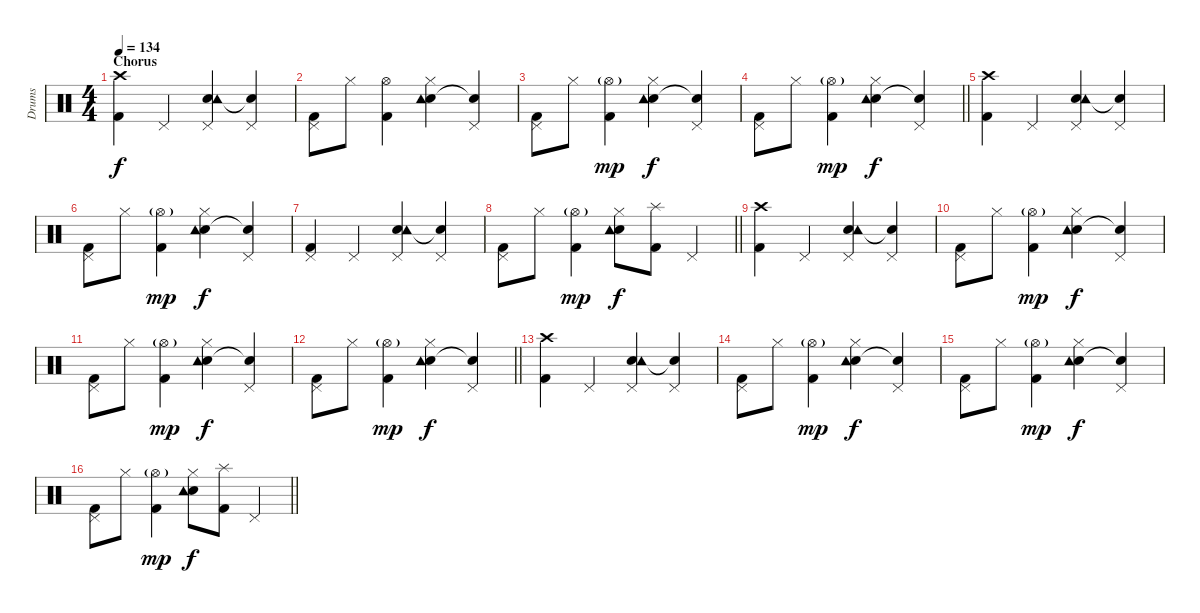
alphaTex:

\track ("Drums" "Drums") {instrument percussion}
\staff {score}
\articulation defaults
\ts (4 4)
\section ("" "Chorus")
\tempo 134
\clef neutral
\ks c
("Crash high (hit)" "Kick (hit) 2").4{dy f} "Pedal Hi-Hat (hit)".4 ("Pedal Hi-Hat (hit)" "Electric Snare (hit)" "Tambourine (hit)").4 ("Pedal Hi-Hat (hit)" "Snare (hit)"{t}).4 |
("Pedal Hi-Hat (hit)" "Kick (hit) 2").8 "Hi-Hat (closed)".8 ("Hi-Hat (open)" "Kick (hit) 2").4 ("Hi-Hat (closed)" "Electric Snare (hit)" "Tambourine (hit)").4 ("Pedal Hi-Hat (hit)" "Snare (hit)"{t}).4 |
("Pedal Hi-Hat (hit)" "Kick (hit) 2").8 "Hi-Hat (closed)".8 ("Hi-Hat (open)"{g} "Kick (hit) 2").4{dy mp} ("Hi-Hat (closed)" "Electric Snare (hit)" "Tambourine (hit)").4{dy f} ("Pedal Hi-Hat (hit)" "Snare (hit)"{t}).4 |
\barLineRight lightlight
("Pedal Hi-Hat (hit)" "Kick (hit) 2").8 "Hi-Hat (closed)".8 ("Hi-Hat (open)"{g} "Kick (hit) 2").4{dy mp} ("Hi-Hat (closed)" "Electric Snare (hit)" "Tambourine (hit)").4{dy f} ("Pedal Hi-Hat (hit)" "Snare (hit)"{t}).4 |
("Crash high (hit)" "Kick (hit) 2").4 "Pedal Hi-Hat (hit)".4 ("Pedal Hi-Hat (hit)" "Electric Snare (hit)" "Tambourine (hit)").4 ("Pedal Hi-Hat (hit)" "Snare (hit)"{t}).4 |
("Pedal Hi-Hat (hit)" "Kick (hit) 2").8 "Hi-Hat (closed)".8 ("Hi-Hat (open)"{g} "Kick (hit) 2").4{dy mp} ("Hi-Hat (closed)" "Electric Snare (hit)" "Tambourine (hit)").4{dy f} ("Pedal Hi-Hat (hit)" "Snare (hit)"{t}).4 |
("Pedal Hi-Hat (hit)" "Kick (hit) 2").4 "Pedal Hi-Hat (hit)".4 ("Pedal Hi-Hat (hit)" "Electric Snare (hit)" "Tambourine (hit)").4 ("Pedal Hi-Hat (hit)" "Snare (hit)"{t}).4 |
\barLineRight lightlight
("Pedal Hi-Hat (hit)" "Kick (hit) 2").8 "Hi-Hat (closed)".8 ("Hi-Hat (open)"{g} "Kick (hit) 2").4{dy mp} ("Hi-Hat (closed)" "Electric Snare (hit)" "Tambourine (hit)").8{dy f} ("Splash (hit)" "Kick (hit) 2").8 "Pedal Hi-Hat (hit)".4 |
("Crash high (hit)" "Kick (hit) 2").4 "Pedal Hi-Hat (hit)".4 ("Pedal Hi-Hat (hit)" "Electric Snare (hit)" "Tambourine (hit)").4 ("Pedal Hi-Hat (hit)" "Snare (hit)"{t}).4 |
("Pedal Hi-Hat (hit)" "Kick (hit) 2").8 "Hi-Hat (closed)".8 ("Hi-Hat (open)"{g} "Kick (hit) 2").4{dy mp} ("Hi-Hat (closed)" "Electric Snare (hit)" "Tambourine (hit)").4{dy f} ("Pedal Hi-Hat (hit)" "Snare (hit)"{t}).4 |
("Pedal Hi-Hat (hit)" "Kick (hit) 2").8 "Hi-Hat (closed)".8 ("Hi-Hat (open)"{g} "Kick (hit) 2").4{dy mp} ("Hi-Hat (closed)" "Electric Snare (hit)" "Tambourine (hit)").4{dy f} ("Pedal Hi-Hat (hit)" "Snare (hit)"{t}).4 |
\barLineRight lightlight
("Pedal Hi-Hat (hit)" "Kick (hit) 2").8 "Hi-Hat (closed)".8 ("Hi-Hat (open)"{g} "Kick (hit) 2").4{dy mp} ("Hi-Hat (closed)" "Electric Snare (hit)" "Tambourine (hit)").4{dy f} ("Pedal Hi-Hat (hit)" "Snare (hit)"{t}).4 |
("Crash high (hit)" "Kick (hit) 2").4 "Pedal Hi-Hat (hit)".4 ("Pedal Hi-Hat (hit)" "Electric Snare (hit)" "Tambourine (hit)").4 ("Pedal Hi-Hat (hit)" "Snare (hit)"{t}).4 |
("Pedal Hi-Hat (hit)" "Kick (hit) 2").8 "Hi-Hat (closed)".8 ("Hi-Hat (open)"{g} "Kick (hit) 2").4{dy mp} ("Hi-Hat (closed)" "Electric Snare (hit)" "Tambourine (hit)").4{dy f} ("Pedal Hi-Hat (hit)" "Snare (hit)"{t}).4 |
("Pedal Hi-Hat (hit)" "Kick (hit) 2").8 "Hi-Hat (closed)".8 ("Hi-Hat (open)"{g} "Kick (hit) 2").4{dy mp} ("Hi-Hat (closed)" "Electric Snare (hit)" "Tambourine (hit)").4{dy f} ("Pedal Hi-Hat (hit)" "Snare (hit)"{t}).4 |
\barLineRight lightlight
("Pedal Hi-Hat (hit)" "Kick (hit) 2").8 "Hi-Hat (closed)".8 ("Hi-Hat (open)"{g} "Kick (hit) 2").4{dy mp} ("Hi-Hat (closed)" "Electric Snare (hit)" "Tambourine (hit)").8{dy f} ("Splash (hit)" "Kick (hit) 2").8 "Pedal Hi-Hat (hit)".4
